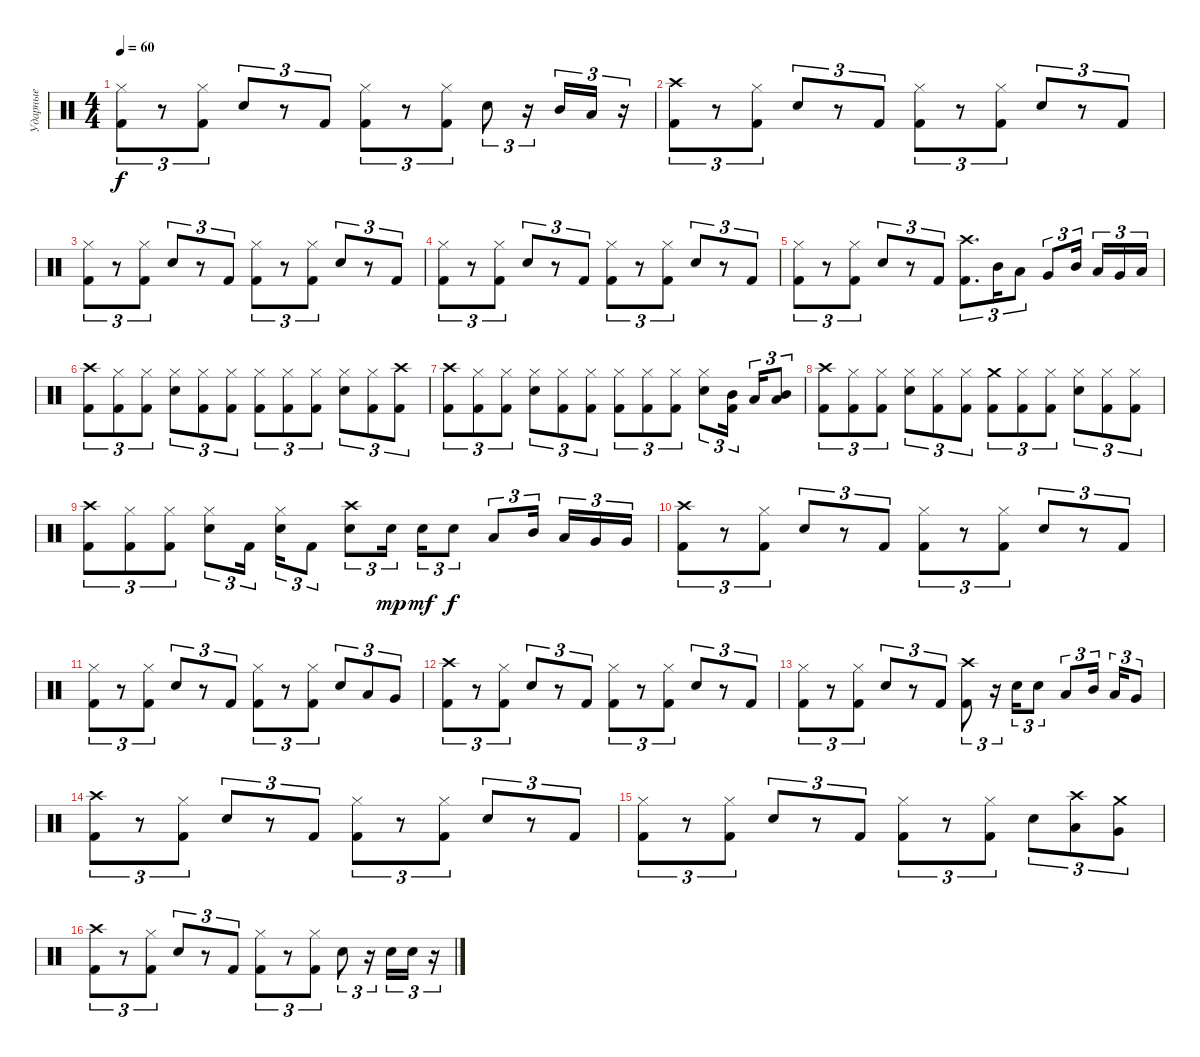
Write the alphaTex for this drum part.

\track ("Ударные" "Ударные") {instrument percussion}
\staff {score}
\articulation defaults
\ts (4 4)
\tempo 60
\clef neutral
\ks c
("Hi-Hat (closed)" "Kick (hit) 2").8{tu (3 2) dy f} r.8{tu (3 2)} ("Hi-Hat (closed)" "Kick (hit) 2").8{tu (3 2)} "Snare (hit) 2".8{tu (3 2)} r.8{tu (3 2)} "Kick (hit) 2".8{tu (3 2)} ("Hi-Hat (closed)" "Kick (hit) 2").8{tu (3 2)} r.8{tu (3 2)} ("Hi-Hat (closed)" "Kick (hit) 2").8{tu (3 2)} "Snare (hit) 2".8{tu (3 2)} r.16{tu (3 2)} "Mid Tom (hit)".16{tu (3 2)} "Low Tom (hit)".16{tu (3 2)} r.16{tu (3 2)} |
("Crash high (hit)" "Kick (hit) 2").8{tu (3 2)} r.8{tu (3 2)} ("Hi-Hat (closed)" "Kick (hit) 2").8{tu (3 2)} "Snare (hit) 2".8{tu (3 2)} r.8{tu (3 2)} "Kick (hit) 2".8{tu (3 2)} ("Hi-Hat (closed)" "Kick (hit) 2").8{tu (3 2)} r.8{tu (3 2)} ("Hi-Hat (closed)" "Kick (hit) 2").8{tu (3 2)} "Snare (hit) 2".8{tu (3 2)} r.8{tu (3 2)} "Kick (hit) 2".8{tu (3 2)} |
("Hi-Hat (closed)" "Kick (hit) 2").8{tu (3 2)} r.8{tu (3 2)} ("Hi-Hat (closed)" "Kick (hit) 2").8{tu (3 2)} "Snare (hit) 2".8{tu (3 2)} r.8{tu (3 2)} "Kick (hit) 2".8{tu (3 2)} ("Hi-Hat (closed)" "Kick (hit) 2").8{tu (3 2)} r.8{tu (3 2)} ("Hi-Hat (closed)" "Kick (hit) 2").8{tu (3 2)} "Snare (hit) 2".8{tu (3 2)} r.8{tu (3 2)} "Kick (hit) 2".8{tu (3 2)} |
("Hi-Hat (closed)" "Kick (hit) 2").8{tu (3 2)} r.8{tu (3 2)} ("Hi-Hat (closed)" "Kick (hit) 2").8{tu (3 2)} "Snare (hit) 2".8{tu (3 2)} r.8{tu (3 2)} "Kick (hit) 2".8{tu (3 2)} ("Hi-Hat (closed)" "Kick (hit) 2").8{tu (3 2)} r.8{tu (3 2)} ("Hi-Hat (closed)" "Kick (hit) 2").8{tu (3 2)} "Snare (hit) 2".8{tu (3 2)} r.8{tu (3 2)} "Kick (hit) 2".8{tu (3 2)} |
("Hi-Hat (closed)" "Kick (hit) 2").8{tu (3 2)} r.8{tu (3 2)} ("Hi-Hat (closed)" "Kick (hit) 2").8{tu (3 2)} "Snare (hit) 2".8{tu (3 2)} r.8{tu (3 2)} "Kick (hit) 2".8{tu (3 2)} ("Crash high (hit)" "Kick (hit) 2").8{d tu (3 2)} "Mid Tom (hit)".16{tu (3 2)} "Low Tom (hit)".8{tu (3 2)} "Very Low Tom (hit)".8{tu (3 2)} "Mid Tom (hit)".16{tu (3 2) beam splitsecondary} "Low Tom (hit)".16{tu (3 2)} "Very Low Tom (hit)".16{tu (3 2)} "Low Floor Tom (hit)".16{tu (3 2)} |
("Crash high (hit)" "Kick (hit) 2").8{tu (3 2)} ("Hi-Hat (closed)" "Kick (hit) 2").8{tu (3 2)} ("Hi-Hat (closed)" "Kick (hit) 2").8{tu (3 2)} ("Hi-Hat (closed)" "Snare (hit) 2").8{tu (3 2)} ("Hi-Hat (closed)" "Kick (hit) 2").8{tu (3 2)} ("Hi-Hat (closed)" "Kick (hit) 2").8{tu (3 2)} ("Hi-Hat (closed)" "Kick (hit) 2").8{tu (3 2)} ("Hi-Hat (closed)" "Kick (hit) 2").8{tu (3 2)} ("Hi-Hat (closed)" "Kick (hit) 2").8{tu (3 2)} ("Hi-Hat (closed)" "Snare (hit) 2").8{tu (3 2)} ("Hi-Hat (closed)" "Kick (hit) 2").8{tu (3 2)} ("Crash high (hit)" "Kick (hit) 2").8{tu (3 2)} |
("Crash high (hit)" "Kick (hit) 2").8{tu (3 2)} ("Hi-Hat (closed)" "Kick (hit) 2").8{tu (3 2)} ("Hi-Hat (closed)" "Kick (hit) 2").8{tu (3 2)} ("Hi-Hat (closed)" "Snare (hit) 2").8{tu (3 2)} ("Hi-Hat (closed)" "Kick (hit) 2").8{tu (3 2)} ("Hi-Hat (closed)" "Kick (hit) 2").8{tu (3 2)} ("Hi-Hat (closed)" "Kick (hit) 2").8{tu (3 2)} ("Hi-Hat (closed)" "Kick (hit) 2").8{tu (3 2)} ("Hi-Hat (closed)" "Kick (hit) 2").8{tu (3 2)} ("Hi-Hat (closed)" "Snare (hit) 2").8{tu (3 2)} ("Mid Tom (hit)" "Kick (hit) 2").16{tu (3 2) beam splitsecondary} "Low Tom (hit)".16{tu (3 2)} ("Low Tom (hit)" "Mid Tom (hit)").8{tu (3 2)} |
("Crash high (hit)" "Kick (hit) 2").8{tu (3 2)} ("Hi-Hat (closed)" "Kick (hit) 2").8{tu (3 2)} ("Hi-Hat (closed)" "Kick (hit) 2").8{tu (3 2)} ("Hi-Hat (closed)" "Snare (hit) 2").8{tu (3 2)} ("Hi-Hat (closed)" "Kick (hit) 2").8{tu (3 2)} ("Hi-Hat (closed)" "Kick (hit) 2").8{tu (3 2)} ("Crash medium (hit)" "Kick (hit) 2").8{tu (3 2)} ("Hi-Hat (closed)" "Kick (hit) 2").8{tu (3 2)} ("Hi-Hat (closed)" "Kick (hit) 2").8{tu (3 2)} ("Hi-Hat (closed)" "Snare (hit) 2").8{tu (3 2)} ("Hi-Hat (closed)" "Kick (hit) 2").8{tu (3 2)} ("Hi-Hat (closed)" "Kick (hit) 2").8{tu (3 2)} |
("Crash high (hit)" "Kick (hit) 2").8{tu (3 2)} ("Hi-Hat (closed)" "Kick (hit) 2").8{tu (3 2)} ("Hi-Hat (closed)" "Kick (hit) 2").8{tu (3 2)} ("Hi-Hat (closed)" "Snare (hit) 2").8{tu (3 2)} "Kick (hit) 2".16{tu (3 2) beam splitsecondary} ("Hi-Hat (closed)" "Snare (hit) 2").16{tu (3 2)} "Kick (hit) 2".8{tu (3 2)} ("Crash high (hit)" "Snare (hit) 2").8{tu (3 2)} "Snare (hit) 2".16{tu (3 2) dy mp beam splitsecondary} "Snare (hit) 2".16{tu (3 2) dy mf} "Snare (hit) 2".8{tu (3 2) dy f} "Low Tom (hit)".8{tu (3 2)} "Mid Tom (hit)".16{tu (3 2) beam splitsecondary} "Low Tom (hit)".16{tu (3 2)} "Very Low Tom (hit)".16{tu (3 2)} "Very Low Tom (hit)".16{tu (3 2)} |
("Crash high (hit)" "Kick (hit) 2").8{tu (3 2)} r.8{tu (3 2)} ("Hi-Hat (closed)" "Kick (hit) 2").8{tu (3 2)} "Snare (hit) 2".8{tu (3 2)} r.8{tu (3 2)} "Kick (hit) 2".8{tu (3 2)} ("Hi-Hat (closed)" "Kick (hit) 2").8{tu (3 2)} r.8{tu (3 2)} ("Hi-Hat (closed)" "Kick (hit) 2").8{tu (3 2)} "Snare (hit) 2".8{tu (3 2)} r.8{tu (3 2)} "Kick (hit) 2".8{tu (3 2)} |
("Hi-Hat (closed)" "Kick (hit) 2").8{tu (3 2)} r.8{tu (3 2)} ("Hi-Hat (closed)" "Kick (hit) 2").8{tu (3 2)} "Snare (hit) 2".8{tu (3 2)} r.8{tu (3 2)} "Kick (hit) 2".8{tu (3 2)} ("Hi-Hat (closed)" "Kick (hit) 2").8{tu (3 2)} r.8{tu (3 2)} ("Hi-Hat (closed)" "Kick (hit) 2").8{tu (3 2)} "Snare (hit) 2".8{tu (3 2)} "Low Tom (hit)".8{tu (3 2)} "Very Low Tom (hit)".8{tu (3 2)} |
("Crash high (hit)" "Kick (hit) 2").8{tu (3 2)} r.8{tu (3 2)} ("Hi-Hat (closed)" "Kick (hit) 2").8{tu (3 2)} "Snare (hit) 2".8{tu (3 2)} r.8{tu (3 2)} "Kick (hit) 2".8{tu (3 2)} ("Hi-Hat (closed)" "Kick (hit) 2").8{tu (3 2)} r.8{tu (3 2)} ("Hi-Hat (closed)" "Kick (hit) 2").8{tu (3 2)} "Snare (hit) 2".8{tu (3 2)} r.8{tu (3 2)} "Kick (hit) 2".8{tu (3 2)} |
("Hi-Hat (closed)" "Kick (hit) 2").8{tu (3 2)} r.8{tu (3 2)} ("Hi-Hat (closed)" "Kick (hit) 2").8{tu (3 2)} "Snare (hit) 2".8{tu (3 2)} r.8{tu (3 2)} "Kick (hit) 2".8{tu (3 2)} ("Crash high (hit)" "Kick (hit) 2").8{tu (3 2)} r.16{tu (3 2)} "Snare (hit) 2".16{tu (3 2)} "Snare (hit) 2".8{tu (3 2)} "Low Tom (hit)".8{tu (3 2)} "Mid Tom (hit)".16{tu (3 2) beam splitsecondary} "Low Tom (hit)".16{tu (3 2)} "Very Low Tom (hit)".8{tu (3 2)} |
("Crash high (hit)" "Kick (hit) 2").8{tu (3 2)} r.8{tu (3 2)} ("Hi-Hat (closed)" "Kick (hit) 2").8{tu (3 2)} "Snare (hit) 2".8{tu (3 2)} r.8{tu (3 2)} "Kick (hit) 2".8{tu (3 2)} ("Hi-Hat (closed)" "Kick (hit) 2").8{tu (3 2)} r.8{tu (3 2)} ("Hi-Hat (closed)" "Kick (hit) 2").8{tu (3 2)} "Snare (hit) 2".8{tu (3 2)} r.8{tu (3 2)} "Kick (hit) 2".8{tu (3 2)} |
("Hi-Hat (closed)" "Kick (hit) 2").8{tu (3 2)} r.8{tu (3 2)} ("Hi-Hat (closed)" "Kick (hit) 2").8{tu (3 2)} "Snare (hit) 2".8{tu (3 2)} r.8{tu (3 2)} "Kick (hit) 2".8{tu (3 2)} ("Hi-Hat (closed)" "Kick (hit) 2").8{tu (3 2)} r.8{tu (3 2)} ("Hi-Hat (closed)" "Kick (hit) 2").8{tu (3 2)} "Snare (hit) 2".8{tu (3 2)} ("Crash high (hit)" "Low Tom (hit)").8{tu (3 2)} ("Crash medium (hit)" "Very Low Tom (hit)").8{tu (3 2)} |
("Crash high (hit)" "Kick (hit) 2").8{tu (3 2)} r.8{tu (3 2)} ("Hi-Hat (closed)" "Kick (hit) 2").8{tu (3 2)} "Snare (hit) 2".8{tu (3 2)} r.8{tu (3 2)} "Kick (hit) 2".8{tu (3 2)} ("Hi-Hat (closed)" "Kick (hit) 2").8{tu (3 2)} r.8{tu (3 2)} ("Hi-Hat (closed)" "Kick (hit) 2").8{tu (3 2)} "Snare (hit) 2".8{tu (3 2)} r.16{tu (3 2)} "Snare (hit) 2".16{tu (3 2)} "Snare (hit) 2".16{tu (3 2)} r.16{tu (3 2)}
